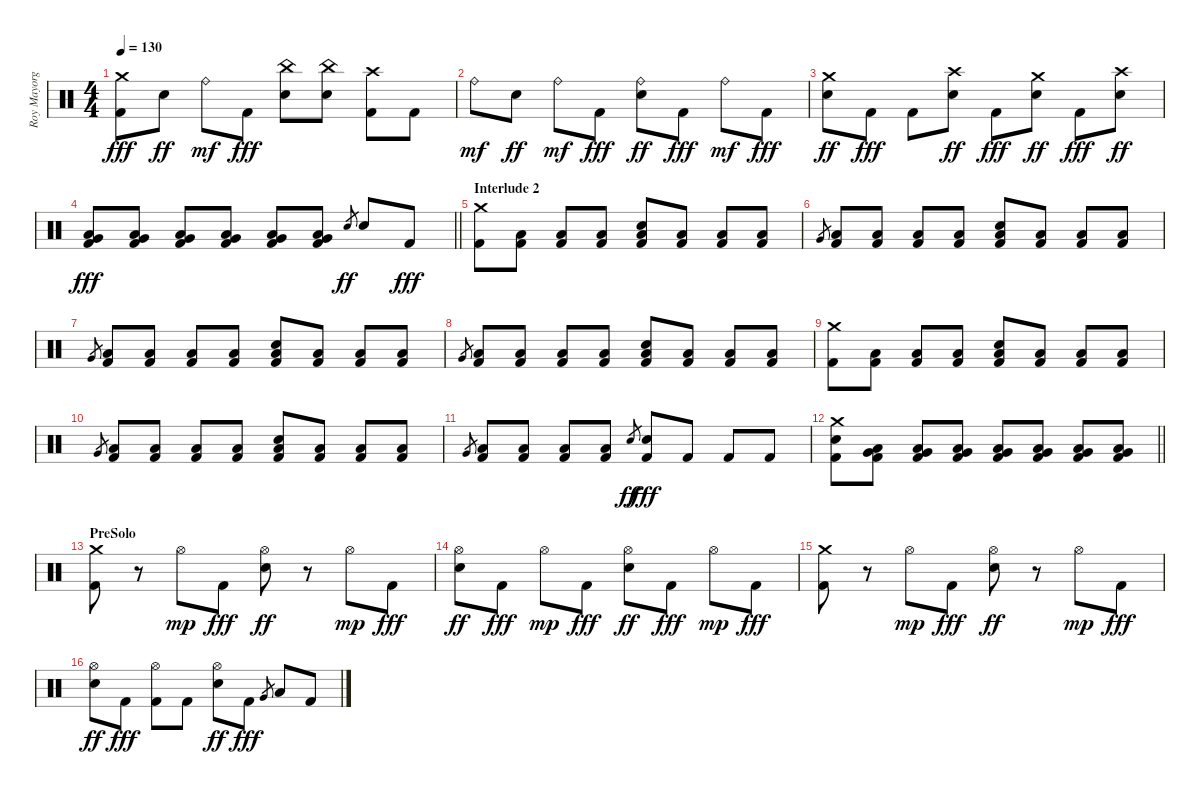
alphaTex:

\track ("Roy Mayorga" "Roy Mayorg") {instrument percussion}
\staff {score}
\articulation defaults
\ts (4 4)
\tempo 130
\clef neutral
\ks c
("Crash medium (hit)" "Kick (hit) 2").8{dy fff} "Electric Snare (hit)".8{dy ff} "Ride (bell)".8{dy mf} "Kick (hit) 2".8{dy fff} ("China (hit)" "Electric Snare (hit)").8 ("China (hit)" "Electric Snare (hit)").8 ("Crash high (hit)" "Kick (hit) 2").8 "Kick (hit) 2".8 |
"Ride (bell)".8{dy mf} "Electric Snare (hit)".8{dy ff} "Ride (bell)".8{dy mf} "Kick (hit) 2".8{dy fff} ("Ride (bell)" "Electric Snare (hit)").8{dy ff} "Kick (hit) 2".8{dy fff} "Ride (bell)".8{dy mf} "Kick (hit) 2".8{dy fff} |
("Crash medium (hit)" "Electric Snare (hit)").8{dy ff} "Kick (hit) 2".8{dy fff} "Kick (hit) 2".8 ("Crash high (hit)" "Electric Snare (hit)").8{dy ff} "Kick (hit) 2".8{dy fff} ("Crash medium (hit)" "Electric Snare (hit)").8{dy ff} "Kick (hit) 2".8{dy fff} ("Crash high (hit)" "Electric Snare (hit)").8{dy ff} |
\barLineRight lightlight
("Very Low Tom (hit)" "Low Floor Tom (hit)" "Kick (hit) 2").8{dy fff} ("Very Low Tom (hit)" "Low Floor Tom (hit)" "Kick (hit) 2").8 ("Very Low Tom (hit)" "Low Floor Tom (hit)" "Kick (hit) 2").8 ("Very Low Tom (hit)" "Low Floor Tom (hit)" "Kick (hit) 2").8 ("Very Low Tom (hit)" "Low Floor Tom (hit)" "Kick (hit) 2").8 ("Very Low Tom (hit)" "Low Floor Tom (hit)" "Kick (hit) 2").8 "Electric Snare (hit)".8{gr dy ff} "Electric Snare (hit)".8 "Kick (hit) 2".8{dy fff} |
\section ("" "Interlude 2")
("Crash medium (hit)" "Kick (hit) 2").8 ("Low Floor Tom (hit)" "Kick (hit) 2").8 ("Low Floor Tom (hit)" "Kick (hit) 2").8 ("Low Floor Tom (hit)" "Kick (hit) 2").8 ("Electric Snare (hit)" "Low Floor Tom (hit)" "Kick (hit) 2").8 ("Low Floor Tom (hit)" "Kick (hit) 2").8 ("Low Floor Tom (hit)" "Kick (hit) 2").8 ("Low Floor Tom (hit)" "Kick (hit) 2").8 |
"Very Low Tom (hit)".8{gr} ("Low Floor Tom (hit)" "Kick (hit) 2").8 ("Low Floor Tom (hit)" "Kick (hit) 2").8 ("Low Floor Tom (hit)" "Kick (hit) 2").8 ("Low Floor Tom (hit)" "Kick (hit) 2").8 ("Electric Snare (hit)" "Low Floor Tom (hit)" "Kick (hit) 2").8 ("Low Floor Tom (hit)" "Kick (hit) 2").8 ("Low Floor Tom (hit)" "Kick (hit) 2").8 ("Low Floor Tom (hit)" "Kick (hit) 2").8 |
"Very Low Tom (hit)".8{gr} ("Low Floor Tom (hit)" "Kick (hit) 2").8 ("Low Floor Tom (hit)" "Kick (hit) 2").8 ("Low Floor Tom (hit)" "Kick (hit) 2").8 ("Low Floor Tom (hit)" "Kick (hit) 2").8 ("Electric Snare (hit)" "Low Floor Tom (hit)" "Kick (hit) 2").8 ("Low Floor Tom (hit)" "Kick (hit) 2").8 ("Low Floor Tom (hit)" "Kick (hit) 2").8 ("Low Floor Tom (hit)" "Kick (hit) 2").8 |
"Very Low Tom (hit)".8{gr} ("Low Floor Tom (hit)" "Kick (hit) 2").8 ("Low Floor Tom (hit)" "Kick (hit) 2").8 ("Low Floor Tom (hit)" "Kick (hit) 2").8 ("Low Floor Tom (hit)" "Kick (hit) 2").8 ("Electric Snare (hit)" "Low Floor Tom (hit)" "Kick (hit) 2").8 ("Low Floor Tom (hit)" "Kick (hit) 2").8 ("Low Floor Tom (hit)" "Kick (hit) 2").8 ("Low Floor Tom (hit)" "Kick (hit) 2").8 |
("Crash medium (hit)" "Kick (hit) 2").8 ("Low Floor Tom (hit)" "Kick (hit) 2").8 ("Low Floor Tom (hit)" "Kick (hit) 2").8 ("Low Floor Tom (hit)" "Kick (hit) 2").8 ("Electric Snare (hit)" "Low Floor Tom (hit)" "Kick (hit) 2").8 ("Low Floor Tom (hit)" "Kick (hit) 2").8 ("Low Floor Tom (hit)" "Kick (hit) 2").8 ("Low Floor Tom (hit)" "Kick (hit) 2").8 |
"Very Low Tom (hit)".8{gr} ("Low Floor Tom (hit)" "Kick (hit) 2").8 ("Low Floor Tom (hit)" "Kick (hit) 2").8 ("Low Floor Tom (hit)" "Kick (hit) 2").8 ("Low Floor Tom (hit)" "Kick (hit) 2").8 ("Electric Snare (hit)" "Low Floor Tom (hit)" "Kick (hit) 2").8 ("Low Floor Tom (hit)" "Kick (hit) 2").8 ("Low Floor Tom (hit)" "Kick (hit) 2").8 ("Low Floor Tom (hit)" "Kick (hit) 2").8 |
"Very Low Tom (hit)".8{gr} ("Low Floor Tom (hit)" "Kick (hit) 2").8 ("Low Floor Tom (hit)" "Kick (hit) 2").8 ("Low Floor Tom (hit)" "Kick (hit) 2").8 ("Low Floor Tom (hit)" "Kick (hit) 2").8 "Electric Snare (hit)".8{gr dy ff} ("Electric Snare (hit)" "Kick (hit) 2").8{dy fff} "Kick (hit) 2".8 "Kick (hit) 2".8 "Kick (hit) 2".8 |
\barLineRight lightlight
("Crash medium (hit)" "Electric Snare (hit)" "Kick (hit) 2").8 ("Very Low Tom (hit)" "Low Floor Tom (hit)" "Kick (hit) 2").8 ("Very Low Tom (hit)" "Low Floor Tom (hit)" "Kick (hit) 2").8 ("Very Low Tom (hit)" "Low Floor Tom (hit)" "Kick (hit) 2").8 ("Very Low Tom (hit)" "Low Floor Tom (hit)" "Kick (hit) 2").8 ("Very Low Tom (hit)" "Low Floor Tom (hit)" "Kick (hit) 2").8 ("Very Low Tom (hit)" "Low Floor Tom (hit)" "Kick (hit) 2").8 ("Very Low Tom (hit)" "Low Floor Tom (hit)" "Kick (hit) 2").8 |
\section ("" "PreSolo")
("Crash medium (hit)" "Kick (hit) 2").8 r.8 "Hi-Hat (open)".8{dy mp} "Kick (hit) 2".8{dy fff} ("Hi-Hat (open)" "Electric Snare (hit)").8{dy ff} r.8 "Hi-Hat (open)".8{dy mp} "Kick (hit) 2".8{dy fff} |
("Hi-Hat (open)" "Electric Snare (hit)").8{dy ff} "Kick (hit) 2".8{dy fff} "Hi-Hat (open)".8{dy mp} "Kick (hit) 2".8{dy fff} ("Hi-Hat (open)" "Electric Snare (hit)").8{dy ff} "Kick (hit) 2".8{dy fff} "Hi-Hat (open)".8{dy mp} "Kick (hit) 2".8{dy fff} |
("Crash medium (hit)" "Kick (hit) 2").8 r.8 "Hi-Hat (open)".8{dy mp} "Kick (hit) 2".8{dy fff} ("Hi-Hat (open)" "Electric Snare (hit)").8{dy ff} r.8 "Hi-Hat (open)".8{dy mp} "Kick (hit) 2".8{dy fff} |
("Hi-Hat (open)" "Electric Snare (hit)").8{dy ff} "Kick (hit) 2".8{dy fff} ("Hi-Hat (open)" "Kick (hit) 2").8 "Kick (hit) 2".8 ("Hi-Hat (open)" "Electric Snare (hit)").8{dy ff} "Kick (hit) 2".8{dy fff} "Very Low Tom (hit)".8{gr} "Low Floor Tom (hit)".8 "Kick (hit) 2".8
